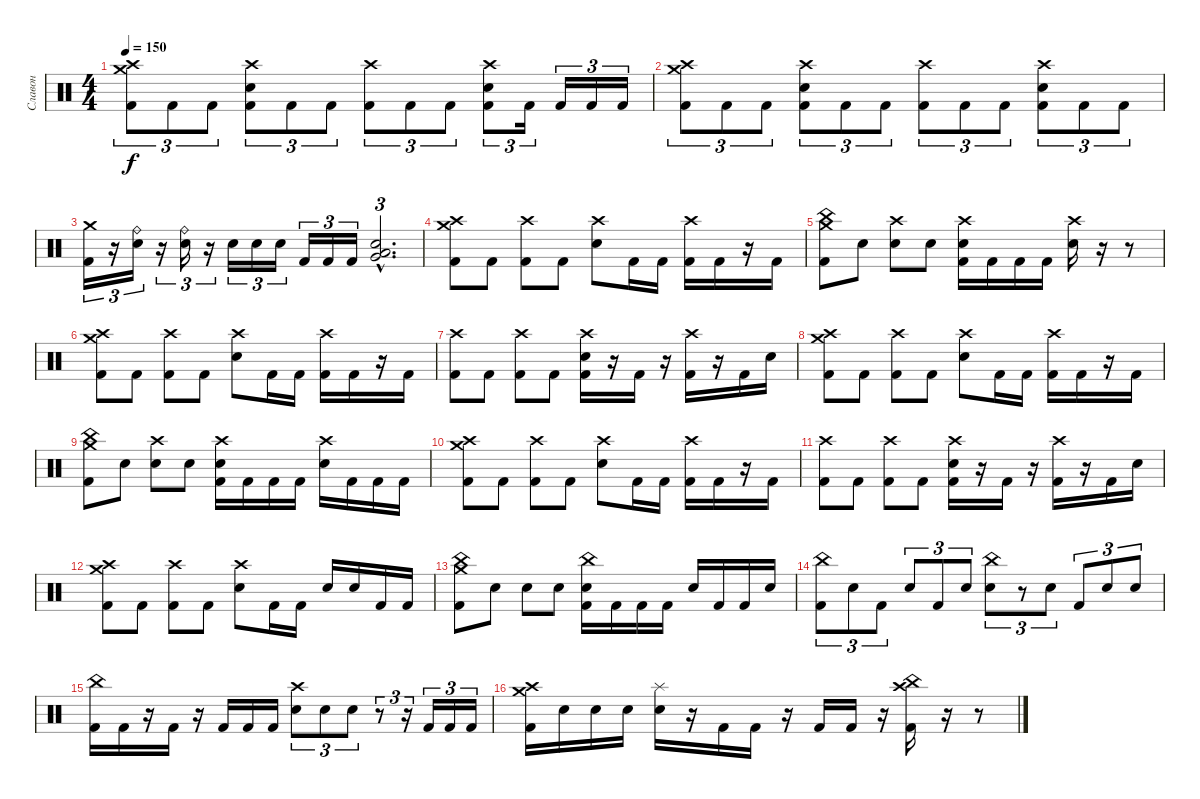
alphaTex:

\track ("Славон" "Славон") {instrument percussion}
\staff {score}
\articulation defaults
\ts (4 4)
\tempo 150
\clef neutral
\ks c
("Crash medium (hit)" "Crash high (hit)" "Kick (hit) 2").8{tu (3 2) dy f} "Kick (hit) 2".8{tu (3 2)} "Kick (hit) 2".8{tu (3 2)} ("Crash high (hit)" "Electric Snare (hit)" "Kick (hit) 2").8{tu (3 2)} "Kick (hit) 2".8{tu (3 2)} "Kick (hit) 2".8{tu (3 2)} ("Crash high (hit)" "Kick (hit) 2").8{tu (3 2)} "Kick (hit) 2".8{tu (3 2)} "Kick (hit) 2".8{tu (3 2)} ("Crash high (hit)" "Electric Snare (hit)" "Kick (hit) 2").8{tu (3 2)} "Kick (hit) 2".16{tu (3 2)} "Kick (hit) 2".16{tu (3 2)} "Kick (hit) 2".16{tu (3 2)} "Kick (hit) 2".16{tu (3 2)} |
("Crash medium (hit)" "Crash high (hit)" "Kick (hit) 2").8{tu (3 2)} "Kick (hit) 2".8{tu (3 2)} "Kick (hit) 2".8{tu (3 2)} ("Crash high (hit)" "Electric Snare (hit)" "Kick (hit) 2").8{tu (3 2)} "Kick (hit) 2".8{tu (3 2)} "Kick (hit) 2".8{tu (3 2)} ("Crash high (hit)" "Kick (hit) 2").8{tu (3 2)} "Kick (hit) 2".8{tu (3 2)} "Kick (hit) 2".8{tu (3 2)} ("Crash high (hit)" "Electric Snare (hit)" "Kick (hit) 2").8{tu (3 2)} "Kick (hit) 2".8{tu (3 2)} "Kick (hit) 2".8{tu (3 2)} |
("Crash medium (hit)" "Kick (hit) 2").16{tu (3 2)} r.16{tu (3 2)} ("Ride (bell)" "Electric Snare (hit)").16{tu (3 2)} r.16{tu (3 2)} ("Ride (bell)" "Electric Snare (hit)").16{tu (3 2)} r.16{tu (3 2)} "Electric Snare (hit)".16{tu (3 2)} "Electric Snare (hit)".16{tu (3 2)} "Electric Snare (hit)".16{tu (3 2)} "Kick (hit) 2".16{tu (3 2)} "Kick (hit) 2".16{tu (3 2)} "Kick (hit) 2".16{tu (3 2)} ("Electric Snare (hit)"{hac} "Low Tom (hit)"{hac} "Very Low Tom (hit)"{hac}).2{d tu (3 2)} |
("Crash medium (hit)" "Crash high (hit)" "Kick (hit) 2").8 "Kick (hit) 2".8 ("Crash high (hit)" "Kick (hit) 2").8 "Kick (hit) 2".8 ("Crash high (hit)" "Electric Snare (hit)").8 "Kick (hit) 2".16 "Kick (hit) 2".16 ("Crash high (hit)" "Kick (hit) 2").16 "Kick (hit) 2".16 r.16 "Kick (hit) 2".16 |
("China (hit)" "Crash medium (hit)" "Kick (hit) 2").8 "Snare (hit)".8 ("Crash high (hit)" "Snare (hit)").8 "Snare (hit)".8 ("Crash high (hit)" "Electric Snare (hit)" "Kick (hit) 2").16 "Kick (hit) 2".16 "Kick (hit) 2".16 "Kick (hit) 2".16 ("Crash high (hit)" "Snare (hit)").16 r.16 r.8 |
("Crash medium (hit)" "Crash high (hit)" "Kick (hit) 2").8 "Kick (hit) 2".8 ("Crash high (hit)" "Kick (hit) 2").8 "Kick (hit) 2".8 ("Crash high (hit)" "Electric Snare (hit)").8 "Kick (hit) 2".16 "Kick (hit) 2".16 ("Crash high (hit)" "Kick (hit) 2").16 "Kick (hit) 2".16 r.16 "Kick (hit) 2".16 |
("Crash high (hit)" "Kick (hit) 2").8 "Kick (hit) 2".8 ("Crash high (hit)" "Kick (hit) 2").8 "Kick (hit) 2".8 ("Crash high (hit)" "Electric Snare (hit)" "Kick (hit) 2").16 r.16 "Kick (hit) 2".16 r.16 ("Crash high (hit)" "Kick (hit) 2").16 r.16 "Kick (hit) 2".16 "Snare (hit)".16 |
("Crash medium (hit)" "Crash high (hit)" "Kick (hit) 2").8 "Kick (hit) 2".8 ("Crash high (hit)" "Kick (hit) 2").8 "Kick (hit) 2".8 ("Crash high (hit)" "Electric Snare (hit)").8 "Kick (hit) 2".16 "Kick (hit) 2".16 ("Crash high (hit)" "Kick (hit) 2").16 "Kick (hit) 2".16 r.16 "Kick (hit) 2".16 |
("China (hit)" "Crash medium (hit)" "Kick (hit) 2").8 "Snare (hit)".8 ("Crash high (hit)" "Snare (hit)").8 "Snare (hit)".8 ("Crash high (hit)" "Electric Snare (hit)" "Kick (hit) 2").16 "Kick (hit) 2".16 "Kick (hit) 2".16 "Kick (hit) 2".16 ("Crash high (hit)" "Snare (hit)").16 "Kick (hit) 2".16 "Kick (hit) 2".16 "Kick (hit) 2".16 |
("Crash medium (hit)" "Crash high (hit)" "Kick (hit) 2").8 "Kick (hit) 2".8 ("Crash high (hit)" "Kick (hit) 2").8 "Kick (hit) 2".8 ("Crash high (hit)" "Electric Snare (hit)").8 "Kick (hit) 2".16 "Kick (hit) 2".16 ("Crash high (hit)" "Kick (hit) 2").16 "Kick (hit) 2".16 r.16 "Kick (hit) 2".16 |
("Crash high (hit)" "Kick (hit) 2").8 "Kick (hit) 2".8 ("Crash high (hit)" "Kick (hit) 2").8 "Kick (hit) 2".8 ("Crash high (hit)" "Electric Snare (hit)" "Kick (hit) 2").16 r.16 "Kick (hit) 2".16 r.16 ("Crash high (hit)" "Kick (hit) 2").16 r.16 "Kick (hit) 2".16 "Snare (hit)".16 |
("Crash medium (hit)" "Crash high (hit)" "Kick (hit) 2").8 "Kick (hit) 2".8 ("Crash high (hit)" "Kick (hit) 2").8 "Kick (hit) 2".8 ("Crash high (hit)" "Electric Snare (hit)").8 "Kick (hit) 2".16 "Kick (hit) 2".16 "Electric Snare (hit)".16 "Electric Snare (hit)".16 "Kick (hit) 2".16 "Kick (hit) 2".16 |
("Crash medium (hit)" "China (hit)" "Kick (hit) 2").8 "Snare (hit)".8 "Snare (hit)".8 "Snare (hit)".8 ("China (hit)" "Electric Snare (hit)" "Kick (hit) 2").16 "Kick (hit) 2".16 "Kick (hit) 2".16 "Kick (hit) 2".16 "Snare (hit)".16 "Kick (hit) 2".16 "Kick (hit) 2".16 "Snare (hit)".16 |
("China (hit)" "Kick (hit) 2").8{tu (3 2)} "Snare (hit)".8{tu (3 2)} "Kick (hit) 2".8{tu (3 2)} "Snare (hit)".8{tu (3 2)} "Kick (hit) 2".8{tu (3 2)} "Snare (hit)".8{tu (3 2)} ("China (hit)" "Electric Snare (hit)").8{tu (3 2)} r.8{tu (3 2)} "Snare (hit)".8{tu (3 2)} "Kick (hit) 2".8{tu (3 2)} "Snare (hit)".8{tu (3 2)} "Snare (hit)".8{tu (3 2)} |
("China (hit)" "Kick (hit) 2").16 "Kick (hit) 2".16 r.16 "Kick (hit) 2".16 r.16 "Kick (hit) 2".16 "Kick (hit) 2".16 "Kick (hit) 2".16 ("Crash high (hit)" "Electric Snare (hit)").8{tu (3 2)} "Snare (hit)".8{tu (3 2)} "Snare (hit)".8{tu (3 2)} r.8{tu (3 2)} r.16{tu (3 2)} "Kick (hit) 2".16{tu (3 2)} "Kick (hit) 2".16{tu (3 2)} "Kick (hit) 2".16{tu (3 2)} |
("Crash high (hit)" "Crash medium (hit)" "Kick (hit) 2").16 "Snare (hit)".16 "Snare (hit)".16 "Snare (hit)".16 ("Splash (hit)" "Electric Snare (hit)").16 r.16 "Kick (hit) 2".16 "Kick (hit) 2".16 r.16 "Kick (hit) 2".16 "Kick (hit) 2".16 r.16 ("China (hit)" "Crash high (hit)" "Kick (hit) 2").16 r.16 r.8
